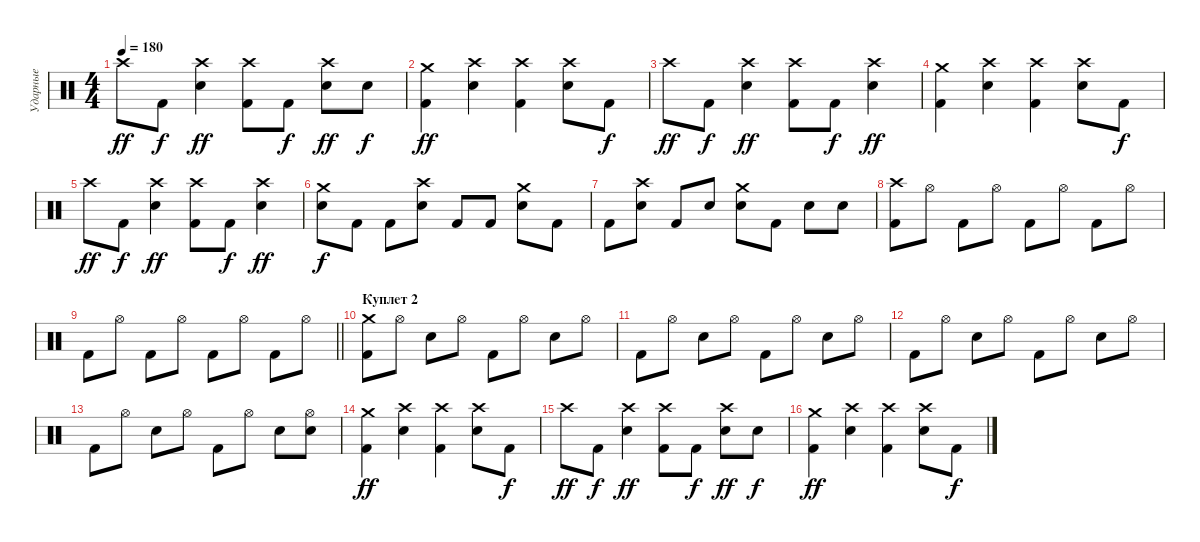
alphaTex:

\track ("Ударные" "Ударные") {instrument percussion}
\staff {score}
\articulation defaults
\ts (4 4)
\tempo 180
\clef neutral
\ks c "Crash high (hit)".8{dy ff} "Kick (hit) 2".8{dy f}
("Crash high (hit)" "Snare (hit) 2").4{dy ff} ("Crash high (hit)" "Kick (hit) 2").8 "Kick (hit) 2".8{dy f} ("Crash high (hit)" "Snare (hit) 2").8{dy ff} "Snare (hit) 2".8{dy f} |
("Crash medium (hit)" "Kick (hit) 2").4{dy ff} ("Crash high (hit)" "Snare (hit) 2").4 ("Crash high (hit)" "Kick (hit) 2").4 ("Crash high (hit)" "Snare (hit) 2").8 "Kick (hit) 2".8{dy f} |
"Crash high (hit)".8{dy ff} "Kick (hit) 2".8{dy f} ("Crash high (hit)" "Snare (hit) 2").4{dy ff} ("Crash high (hit)" "Kick (hit) 2").8 "Kick (hit) 2".8{dy f} ("Crash high (hit)" "Snare (hit) 2").4{dy ff} |
("Crash medium (hit)" "Kick (hit) 2").4 ("Crash high (hit)" "Snare (hit) 2").4 ("Crash high (hit)" "Kick (hit) 2").4 ("Crash high (hit)" "Snare (hit) 2").8 "Kick (hit) 2".8{dy f} |
"Crash high (hit)".8{dy ff} "Kick (hit) 2".8{dy f} ("Crash high (hit)" "Snare (hit) 2").4{dy ff} ("Crash high (hit)" "Kick (hit) 2").8 "Kick (hit) 2".8{dy f} ("Crash high (hit)" "Snare (hit) 2").4{dy ff} |
("Crash medium (hit)" "Snare (hit) 2").8{dy f} "Kick (hit) 2".8 "Kick (hit) 2".8 ("Crash high (hit)" "Snare (hit) 2").8 "Kick (hit) 2".8 "Kick (hit) 2".8 ("Crash medium (hit)" "Snare (hit) 2").8 "Kick (hit) 2".8 |
"Kick (hit) 2".8 ("Crash high (hit)" "Snare (hit) 2").8 "Kick (hit) 2".8 "Snare (hit)".8 ("Crash medium (hit)" "Snare (hit) 2").8 "Kick (hit) 2".8 "Snare (hit) 2".8 "Snare (hit) 2".8 |
("Crash high (hit)" "Kick (hit) 2").8 "Hi-Hat (open)".8 "Kick (hit) 2".8 "Hi-Hat (open)".8 "Kick (hit) 2".8 "Hi-Hat (open)".8 "Kick (hit) 2".8 "Hi-Hat (open)".8 |
\barLineRight lightlight "Kick (hit) 2".8 "Hi-Hat (open)".8 "Kick (hit) 2".8 "Hi-Hat (open)".8 "Kick (hit) 2".8 "Hi-Hat (open)".8 "Kick (hit) 2".8 "Hi-Hat (open)".8
|
\section ("" "Куплет 2")
("Crash medium (hit)" "Kick (hit) 2").8 "Hi-Hat (open)".8 "Snare (hit) 2".8 "Hi-Hat (open)".8 "Kick (hit) 2".8 "Hi-Hat (open)".8 "Snare (hit) 2".8 "Hi-Hat (open)".8 |
"Kick (hit) 2".8 "Hi-Hat (open)".8 "Snare (hit) 2".8 "Hi-Hat (open)".8 "Kick (hit) 2".8 "Hi-Hat (open)".8 "Snare (hit) 2".8 "Hi-Hat (open)".8 |
"Kick (hit) 2".8 "Hi-Hat (open)".8 "Snare (hit) 2".8 "Hi-Hat (open)".8 "Kick (hit) 2".8 "Hi-Hat (open)".8 "Snare (hit) 2".8 "Hi-Hat (open)".8 |
"Kick (hit) 2".8 "Hi-Hat (open)".8 "Snare (hit) 2".8 "Hi-Hat (open)".8 "Kick (hit) 2".8 "Hi-Hat (open)".8 "Snare (hit) 2".8 ("Hi-Hat (open)" "Snare (hit) 2").8 |
("Crash medium (hit)" "Kick (hit) 2").4{dy ff} ("Crash high (hit)" "Snare (hit) 2").4 ("Crash high (hit)" "Kick (hit) 2").4 ("Crash high (hit)" "Snare (hit) 2").8 "Kick (hit) 2".8{dy f} |
"Crash high (hit)".8{dy ff} "Kick (hit) 2".8{dy f} ("Crash high (hit)" "Snare (hit) 2").4{dy ff} ("Crash high (hit)" "Kick (hit) 2").8 "Kick (hit) 2".8{dy f} ("Crash high (hit)" "Snare (hit) 2").8{dy ff} "Snare (hit) 2".8{dy f} |
("Crash medium (hit)" "Kick (hit) 2").4{dy ff} ("Crash high (hit)" "Snare (hit) 2").4 ("Crash high (hit)" "Kick (hit) 2").4 ("Crash high (hit)" "Snare (hit) 2").8 "Kick (hit) 2".8{dy f}
